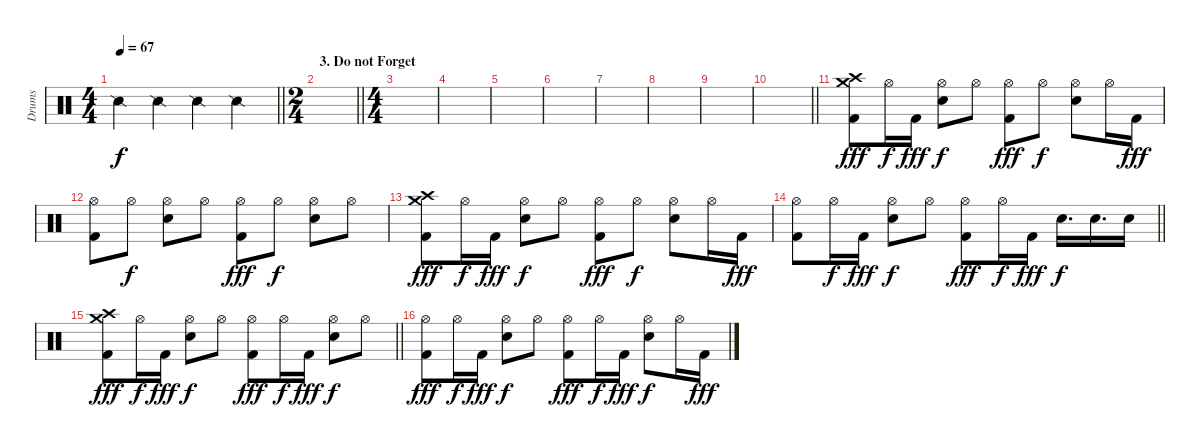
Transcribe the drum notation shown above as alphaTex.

\track ("Drums" "Drums") {instrument percussion}
\staff {score}
\articulation defaults
\ts (4 4)
\tempo 67
\clef neutral
\barLineRight lightlight
\ks c "Snare (side stick) 2".4{dy f} "Snare (side stick) 2".4 "Snare (side stick) 2".4 "Snare (side stick) 2".4
|
\ts (2 4)
\section ("" "3. Do not Forget")
\barLineRight lightlight
|
\ts (4 4)
|
|
|
|
|
|
|
\barLineRight lightlight
|
("Kick (hit) 2" "Crash high (hit)" "Crash medium (hit)").8{dy fff} "Hi-Hat (open)".16{dy f} "Kick (hit) 2".16{dy fff} ("Electric Snare (hit)" "Hi-Hat (open)").8{dy f} "Hi-Hat (open)".8 ("Kick (hit) 2" "Hi-Hat (open)").8{dy fff} "Hi-Hat (open)".8{dy f} ("Electric Snare (hit)" "Hi-Hat (open)").8 "Hi-Hat (open)".16 "Kick (hit) 2".16{dy fff} |
("Kick (hit) 2" "Hi-Hat (open)").8 "Hi-Hat (open)".8{dy f} ("Electric Snare (hit)" "Hi-Hat (open)").8 "Hi-Hat (open)".8 ("Kick (hit) 2" "Hi-Hat (open)").8{dy fff} "Hi-Hat (open)".8{dy f} ("Electric Snare (hit)" "Hi-Hat (open)").8 "Hi-Hat (open)".8 |
("Kick (hit) 2" "Crash high (hit)" "Crash medium (hit)").8{dy fff} "Hi-Hat (open)".16{dy f} "Kick (hit) 2".16{dy fff} ("Electric Snare (hit)" "Hi-Hat (open)").8{dy f} "Hi-Hat (open)".8 ("Kick (hit) 2" "Hi-Hat (open)").8{dy fff} "Hi-Hat (open)".8{dy f} ("Electric Snare (hit)" "Hi-Hat (open)").8 "Hi-Hat (open)".16 "Kick (hit) 2".16{dy fff} |
\barLineRight lightlight
("Kick (hit) 2" "Hi-Hat (open)").8 "Hi-Hat (open)".16{dy f} "Kick (hit) 2".16{dy fff} ("Electric Snare (hit)" "Hi-Hat (open)").8{dy f} "Hi-Hat (open)".8 ("Kick (hit) 2" "Hi-Hat (open)").8{dy fff} "Hi-Hat (open)".16{dy f} "Kick (hit) 2".16{dy fff} "Electric Snare (hit)".16{d dy f} "Electric Snare (hit)".16{d} "Electric Snare (hit)".16 |
\barLineRight lightlight
("Kick (hit) 2" "Crash high (hit)" "Crash medium (hit)").8{dy fff} "Hi-Hat (open)".16{dy f} "Kick (hit) 2".16{dy fff} ("Electric Snare (hit)" "Hi-Hat (open)").8{dy f} "Hi-Hat (open)".8 ("Kick (hit) 2" "Hi-Hat (open)").8{dy fff} "Hi-Hat (open)".16{dy f} "Kick (hit) 2".16{dy fff} ("Electric Snare (hit)" "Hi-Hat (open)").8{dy f} "Hi-Hat (open)".8 |
("Kick (hit) 2" "Hi-Hat (open)").8{dy fff} "Hi-Hat (open)".16{dy f} "Kick (hit) 2".16{dy fff} ("Electric Snare (hit)" "Hi-Hat (open)").8{dy f} "Hi-Hat (open)".8 ("Kick (hit) 2" "Hi-Hat (open)").8{dy fff} "Hi-Hat (open)".16{dy f} "Kick (hit) 2".16{dy fff} ("Electric Snare (hit)" "Hi-Hat (open)").8{dy f} "Hi-Hat (open)".16 "Kick (hit) 2".16{dy fff}
